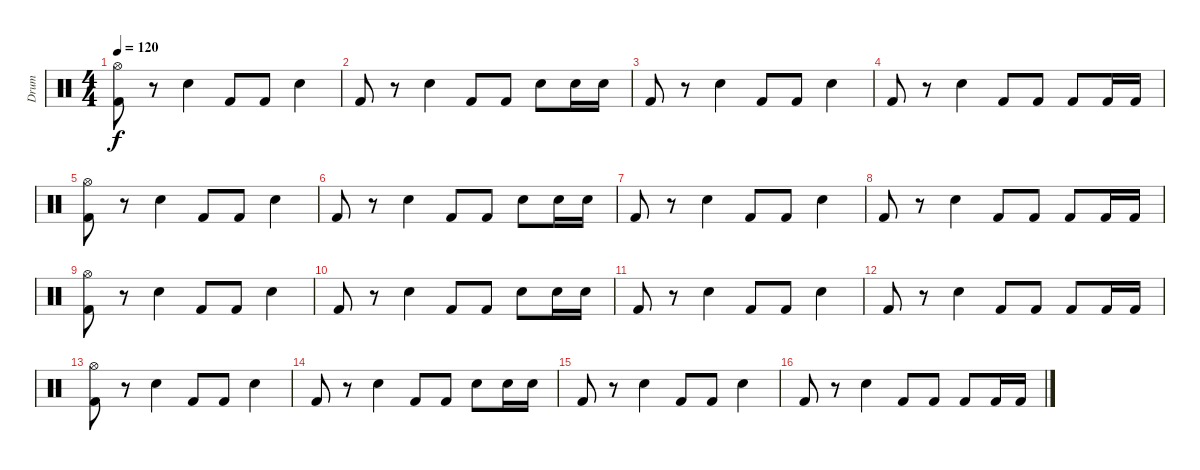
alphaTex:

\track ("Drum" "Drum") {instrument percussion}
\staff {score}
\articulation defaults
\ts (4 4)
\tempo 120
\clef neutral
\ks c
("Kick (hit) 2" "Hi-Hat (open)").8{dy f} r.8 "Electric Snare (hit)".4 "Kick (hit) 2".8 "Kick (hit) 2".8 "Electric Snare (hit)".4 |
"Kick (hit) 2".8 r.8 "Electric Snare (hit)".4 "Kick (hit) 2".8 "Kick (hit) 2".8 "Electric Snare (hit)".8 "Electric Snare (hit)".16 "Electric Snare (hit)".16 |
"Kick (hit) 2".8 r.8 "Electric Snare (hit)".4 "Kick (hit) 2".8 "Kick (hit) 2".8 "Electric Snare (hit)".4 |
"Kick (hit) 2".8 r.8 "Electric Snare (hit)".4 "Kick (hit) 2".8 "Kick (hit) 2".8 "Kick (hit) 2".8 "Kick (hit) 2".16 "Kick (hit) 2".16 |
("Kick (hit) 2" "Hi-Hat (open)").8 r.8 "Electric Snare (hit)".4 "Kick (hit) 2".8 "Kick (hit) 2".8 "Electric Snare (hit)".4 |
"Kick (hit) 2".8 r.8 "Electric Snare (hit)".4 "Kick (hit) 2".8 "Kick (hit) 2".8 "Electric Snare (hit)".8 "Electric Snare (hit)".16 "Electric Snare (hit)".16 |
"Kick (hit) 2".8 r.8 "Electric Snare (hit)".4 "Kick (hit) 2".8 "Kick (hit) 2".8 "Electric Snare (hit)".4 |
"Kick (hit) 2".8 r.8 "Electric Snare (hit)".4 "Kick (hit) 2".8 "Kick (hit) 2".8 "Kick (hit) 2".8 "Kick (hit) 2".16 "Kick (hit) 2".16 |
("Kick (hit) 2" "Hi-Hat (open)").8 r.8 "Electric Snare (hit)".4 "Kick (hit) 2".8 "Kick (hit) 2".8 "Electric Snare (hit)".4 |
"Kick (hit) 2".8 r.8 "Electric Snare (hit)".4 "Kick (hit) 2".8 "Kick (hit) 2".8 "Electric Snare (hit)".8 "Electric Snare (hit)".16 "Electric Snare (hit)".16 |
"Kick (hit) 2".8 r.8 "Electric Snare (hit)".4 "Kick (hit) 2".8 "Kick (hit) 2".8 "Electric Snare (hit)".4 |
"Kick (hit) 2".8 r.8 "Electric Snare (hit)".4 "Kick (hit) 2".8 "Kick (hit) 2".8 "Kick (hit) 2".8 "Kick (hit) 2".16 "Kick (hit) 2".16 |
("Kick (hit) 2" "Hi-Hat (open)").8 r.8 "Electric Snare (hit)".4 "Kick (hit) 2".8 "Kick (hit) 2".8 "Electric Snare (hit)".4 |
"Kick (hit) 2".8 r.8 "Electric Snare (hit)".4 "Kick (hit) 2".8 "Kick (hit) 2".8 "Electric Snare (hit)".8 "Electric Snare (hit)".16 "Electric Snare (hit)".16 |
"Kick (hit) 2".8 r.8 "Electric Snare (hit)".4 "Kick (hit) 2".8 "Kick (hit) 2".8 "Electric Snare (hit)".4 |
"Kick (hit) 2".8 r.8 "Electric Snare (hit)".4 "Kick (hit) 2".8 "Kick (hit) 2".8 "Kick (hit) 2".8 "Kick (hit) 2".16 "Kick (hit) 2".16
